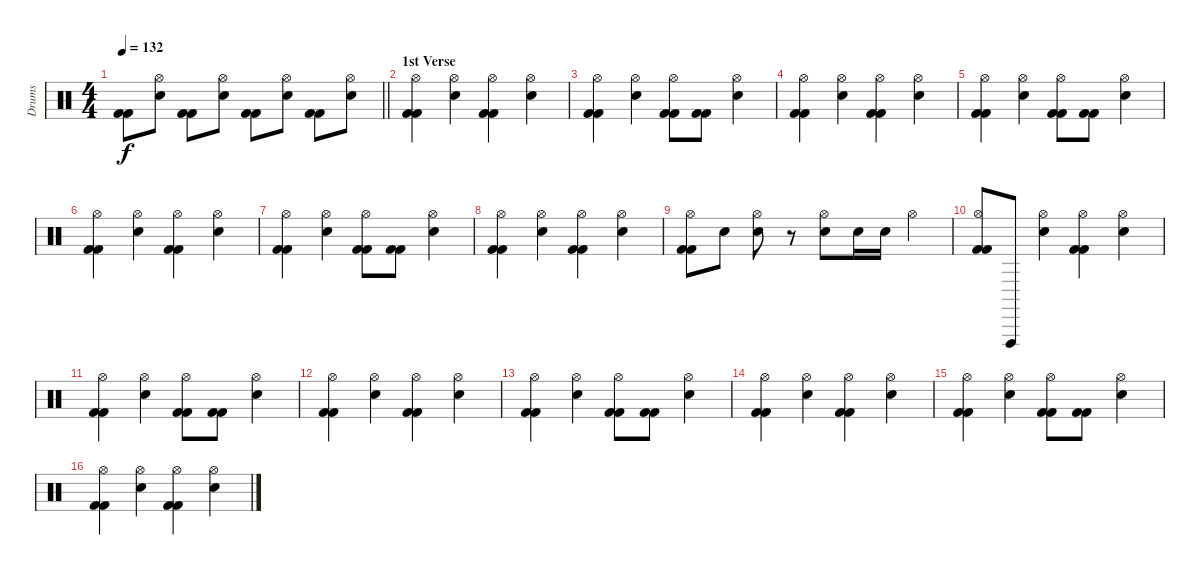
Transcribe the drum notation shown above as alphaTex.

\track ("Drums" "Drums") {instrument percussion}
\staff {score}
\articulation defaults
\ts (4 4)
\tempo 132
\clef neutral
\barLineRight lightlight
\ks c
("Kick (hit) 2" "Kick (hit) 2").8{dy f} ("Hi-Hat (open)" "Snare (hit) 2").8 ("Kick (hit) 2" "Kick (hit) 2").8 ("Hi-Hat (open)" "Snare (hit) 2").8 ("Kick (hit) 2" "Kick (hit) 2").8 ("Hi-Hat (open)" "Snare (hit) 2").8 ("Kick (hit) 2" "Kick (hit) 2").8 ("Hi-Hat (open)" "Snare (hit) 2").8 |
\section ("" "1st Verse")
("Hi-Hat (open)" "Kick (hit) 2" "Kick (hit) 2").4 ("Hi-Hat (open)" "Snare (hit) 2").4 ("Hi-Hat (open)" "Kick (hit) 2" "Kick (hit) 2").4 ("Hi-Hat (open)" "Snare (hit) 2").4 |
("Hi-Hat (open)" "Kick (hit) 2" "Kick (hit) 2").4 ("Hi-Hat (open)" "Snare (hit) 2").4 ("Hi-Hat (open)" "Kick (hit) 2" "Kick (hit) 2").8 ("Kick (hit) 2" "Kick (hit) 2").8 ("Hi-Hat (open)" "Snare (hit) 2").4 |
("Hi-Hat (open)" "Kick (hit) 2" "Kick (hit) 2").4 ("Hi-Hat (open)" "Snare (hit) 2").4 ("Hi-Hat (open)" "Kick (hit) 2" "Kick (hit) 2").4 ("Hi-Hat (open)" "Snare (hit) 2").4 |
("Hi-Hat (open)" "Kick (hit) 2" "Kick (hit) 2").4 ("Hi-Hat (open)" "Snare (hit) 2").4 ("Hi-Hat (open)" "Kick (hit) 2" "Kick (hit) 2").8 ("Kick (hit) 2" "Kick (hit) 2").8 ("Hi-Hat (open)" "Snare (hit) 2").4 |
("Hi-Hat (open)" "Kick (hit) 2" "Kick (hit) 2").4 ("Hi-Hat (open)" "Snare (hit) 2").4 ("Hi-Hat (open)" "Kick (hit) 2" "Kick (hit) 2").4 ("Hi-Hat (open)" "Snare (hit) 2").4 |
("Hi-Hat (open)" "Kick (hit) 2" "Kick (hit) 2").4 ("Hi-Hat (open)" "Snare (hit) 2").4 ("Hi-Hat (open)" "Kick (hit) 2" "Kick (hit) 2").8 ("Kick (hit) 2" "Kick (hit) 2").8 ("Hi-Hat (open)" "Snare (hit) 2").4 |
("Hi-Hat (open)" "Kick (hit) 2" "Kick (hit) 2").4 ("Hi-Hat (open)" "Snare (hit) 2").4 ("Hi-Hat (open)" "Kick (hit) 2" "Kick (hit) 2").4 ("Hi-Hat (open)" "Snare (hit) 2").4 |
("Hi-Hat (open)" "Kick (hit) 2" "Kick (hit) 2").8 "Snare (hit) 2".8 ("Hi-Hat (open)" "Snare (hit) 2").8 r.8 ("Hi-Hat (open)" "Snare (hit) 2").8 "Snare (hit) 2".16 "Snare (hit) 2".16 "Hi-Hat (open)".4 |
("Hi-Hat (open)" "Kick (hit) 2" "Kick (hit) 2").8 "Vibraslap (hit)".8 ("Hi-Hat (open)" "Snare (hit) 2").4 ("Hi-Hat (open)" "Kick (hit) 2" "Kick (hit) 2").4 ("Hi-Hat (open)" "Snare (hit) 2").4 |
("Hi-Hat (open)" "Kick (hit) 2" "Kick (hit) 2").4 ("Hi-Hat (open)" "Snare (hit) 2").4 ("Hi-Hat (open)" "Kick (hit) 2" "Kick (hit) 2").8 ("Kick (hit) 2" "Kick (hit) 2").8 ("Hi-Hat (open)" "Snare (hit) 2").4 |
("Hi-Hat (open)" "Kick (hit) 2" "Kick (hit) 2").4 ("Hi-Hat (open)" "Snare (hit) 2").4 ("Hi-Hat (open)" "Kick (hit) 2" "Kick (hit) 2").4 ("Hi-Hat (open)" "Snare (hit) 2").4 |
("Hi-Hat (open)" "Kick (hit) 2" "Kick (hit) 2").4 ("Hi-Hat (open)" "Snare (hit) 2").4 ("Hi-Hat (open)" "Kick (hit) 2" "Kick (hit) 2").8 ("Kick (hit) 2" "Kick (hit) 2").8 ("Hi-Hat (open)" "Snare (hit) 2").4 |
("Hi-Hat (open)" "Kick (hit) 2" "Kick (hit) 2").4 ("Hi-Hat (open)" "Snare (hit) 2").4 ("Hi-Hat (open)" "Kick (hit) 2" "Kick (hit) 2").4 ("Hi-Hat (open)" "Snare (hit) 2").4 |
("Hi-Hat (open)" "Kick (hit) 2" "Kick (hit) 2").4 ("Hi-Hat (open)" "Snare (hit) 2").4 ("Hi-Hat (open)" "Kick (hit) 2" "Kick (hit) 2").8 ("Kick (hit) 2" "Kick (hit) 2").8 ("Hi-Hat (open)" "Snare (hit) 2").4 |
("Hi-Hat (open)" "Kick (hit) 2" "Kick (hit) 2").4 ("Hi-Hat (open)" "Snare (hit) 2").4 ("Hi-Hat (open)" "Kick (hit) 2" "Kick (hit) 2").4 ("Hi-Hat (open)" "Snare (hit) 2").4
